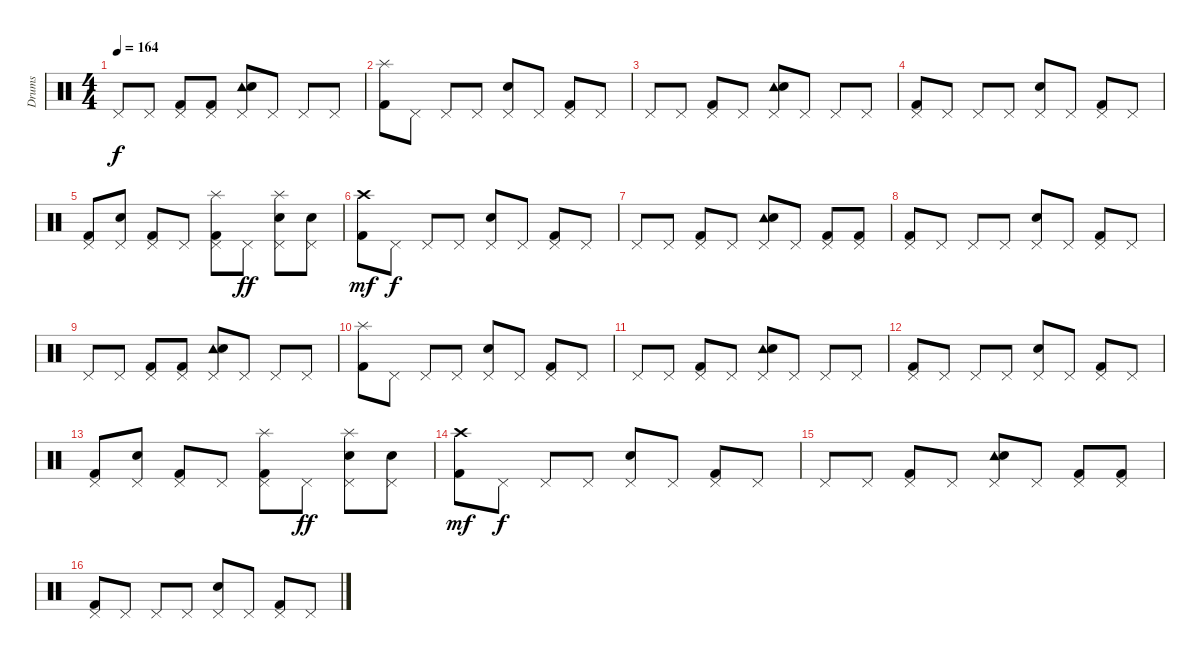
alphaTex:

\track ("Drums" "Drums") {instrument percussion}
\staff {score}
\articulation defaults
\ts (4 4)
\tempo 164
\clef neutral
\ks c "Pedal Hi-Hat (hit)".8{dy f} "Pedal Hi-Hat (hit)".8
("Pedal Hi-Hat (hit)" "Kick (hit) 2").8 ("Pedal Hi-Hat (hit)" "Kick (hit) 2").8 ("Tambourine (hit)" "Pedal Hi-Hat (hit)" "Snare (hit) 2").8 "Pedal Hi-Hat (hit)".8 "Pedal Hi-Hat (hit)".8 "Pedal Hi-Hat (hit)".8 |
("Splash (hit)" "Kick (hit) 2").8 "Pedal Hi-Hat (hit)".8 "Pedal Hi-Hat (hit)".8 "Pedal Hi-Hat (hit)".8 ("Pedal Hi-Hat (hit)" "Snare (hit) 2").8 "Pedal Hi-Hat (hit)".8 ("Pedal Hi-Hat (hit)" "Kick (hit) 2").8 "Pedal Hi-Hat (hit)".8 |
"Pedal Hi-Hat (hit)".8 "Pedal Hi-Hat (hit)".8 ("Pedal Hi-Hat (hit)" "Kick (hit) 2").8 "Pedal Hi-Hat (hit)".8 ("Tambourine (hit)" "Pedal Hi-Hat (hit)" "Snare (hit) 2").8 "Pedal Hi-Hat (hit)".8 "Pedal Hi-Hat (hit)".8 "Pedal Hi-Hat (hit)".8 |
("Pedal Hi-Hat (hit)" "Kick (hit) 2").8 "Pedal Hi-Hat (hit)".8 "Pedal Hi-Hat (hit)".8 "Pedal Hi-Hat (hit)".8 ("Pedal Hi-Hat (hit)" "Snare (hit) 2").8 "Pedal Hi-Hat (hit)".8 ("Pedal Hi-Hat (hit)" "Kick (hit) 2").8 "Pedal Hi-Hat (hit)".8 |
("Pedal Hi-Hat (hit)" "Kick (hit) 2").8 ("Pedal Hi-Hat (hit)" "Snare (hit) 2").8 ("Pedal Hi-Hat (hit)" "Kick (hit) 2").8 "Pedal Hi-Hat (hit)".8 ("Splash (hit)" "Pedal Hi-Hat (hit)" "Kick (hit) 2").8 "Pedal Hi-Hat (hit)".8{dy ff} ("Splash (hit)" "Pedal Hi-Hat (hit)" "Snare (hit) 2").8 ("Pedal Hi-Hat (hit)" "Snare (hit) 2").8 |
("Crash high (hit)" "Kick (hit) 2").8{dy mf} "Pedal Hi-Hat (hit)".8{dy f} "Pedal Hi-Hat (hit)".8 "Pedal Hi-Hat (hit)".8 ("Pedal Hi-Hat (hit)" "Snare (hit) 2").8 "Pedal Hi-Hat (hit)".8 ("Pedal Hi-Hat (hit)" "Kick (hit) 2").8 "Pedal Hi-Hat (hit)".8 |
"Pedal Hi-Hat (hit)".8 "Pedal Hi-Hat (hit)".8 ("Pedal Hi-Hat (hit)" "Kick (hit) 2").8 "Pedal Hi-Hat (hit)".8 ("Tambourine (hit)" "Pedal Hi-Hat (hit)" "Snare (hit) 2").8 "Pedal Hi-Hat (hit)".8 ("Pedal Hi-Hat (hit)" "Kick (hit) 2").8 ("Pedal Hi-Hat (hit)" "Kick (hit) 2").8 |
("Pedal Hi-Hat (hit)" "Kick (hit) 2").8 "Pedal Hi-Hat (hit)".8 "Pedal Hi-Hat (hit)".8 "Pedal Hi-Hat (hit)".8 ("Pedal Hi-Hat (hit)" "Snare (hit) 2").8 "Pedal Hi-Hat (hit)".8 ("Pedal Hi-Hat (hit)" "Kick (hit) 2").8 "Pedal Hi-Hat (hit)".8 |
"Pedal Hi-Hat (hit)".8 "Pedal Hi-Hat (hit)".8 ("Pedal Hi-Hat (hit)" "Kick (hit) 2").8 ("Pedal Hi-Hat (hit)" "Kick (hit) 2").8 ("Tambourine (hit)" "Pedal Hi-Hat (hit)" "Snare (hit) 2").8 "Pedal Hi-Hat (hit)".8 "Pedal Hi-Hat (hit)".8 "Pedal Hi-Hat (hit)".8 |
("Splash (hit)" "Kick (hit) 2").8 "Pedal Hi-Hat (hit)".8 "Pedal Hi-Hat (hit)".8 "Pedal Hi-Hat (hit)".8 ("Pedal Hi-Hat (hit)" "Snare (hit) 2").8 "Pedal Hi-Hat (hit)".8 ("Pedal Hi-Hat (hit)" "Kick (hit) 2").8 "Pedal Hi-Hat (hit)".8 |
"Pedal Hi-Hat (hit)".8 "Pedal Hi-Hat (hit)".8 ("Pedal Hi-Hat (hit)" "Kick (hit) 2").8 "Pedal Hi-Hat (hit)".8 ("Tambourine (hit)" "Pedal Hi-Hat (hit)" "Snare (hit) 2").8 "Pedal Hi-Hat (hit)".8 "Pedal Hi-Hat (hit)".8 "Pedal Hi-Hat (hit)".8 |
("Pedal Hi-Hat (hit)" "Kick (hit) 2").8 "Pedal Hi-Hat (hit)".8 "Pedal Hi-Hat (hit)".8 "Pedal Hi-Hat (hit)".8 ("Pedal Hi-Hat (hit)" "Snare (hit) 2").8 "Pedal Hi-Hat (hit)".8 ("Pedal Hi-Hat (hit)" "Kick (hit) 2").8 "Pedal Hi-Hat (hit)".8 |
("Pedal Hi-Hat (hit)" "Kick (hit) 2").8 ("Pedal Hi-Hat (hit)" "Snare (hit) 2").8 ("Pedal Hi-Hat (hit)" "Kick (hit) 2").8 "Pedal Hi-Hat (hit)".8 ("Splash (hit)" "Pedal Hi-Hat (hit)" "Kick (hit) 2").8 "Pedal Hi-Hat (hit)".8{dy ff} ("Splash (hit)" "Pedal Hi-Hat (hit)" "Snare (hit) 2").8 ("Pedal Hi-Hat (hit)" "Snare (hit) 2").8 |
("Crash high (hit)" "Kick (hit) 2").8{dy mf} "Pedal Hi-Hat (hit)".8{dy f} "Pedal Hi-Hat (hit)".8 "Pedal Hi-Hat (hit)".8 ("Pedal Hi-Hat (hit)" "Snare (hit) 2").8 "Pedal Hi-Hat (hit)".8 ("Pedal Hi-Hat (hit)" "Kick (hit) 2").8 "Pedal Hi-Hat (hit)".8 |
"Pedal Hi-Hat (hit)".8 "Pedal Hi-Hat (hit)".8 ("Pedal Hi-Hat (hit)" "Kick (hit) 2").8 "Pedal Hi-Hat (hit)".8 ("Tambourine (hit)" "Pedal Hi-Hat (hit)" "Snare (hit) 2").8 "Pedal Hi-Hat (hit)".8 ("Pedal Hi-Hat (hit)" "Kick (hit) 2").8 ("Pedal Hi-Hat (hit)" "Kick (hit) 2").8 |
("Pedal Hi-Hat (hit)" "Kick (hit) 2").8 "Pedal Hi-Hat (hit)".8 "Pedal Hi-Hat (hit)".8 "Pedal Hi-Hat (hit)".8 ("Pedal Hi-Hat (hit)" "Snare (hit) 2").8 "Pedal Hi-Hat (hit)".8 ("Pedal Hi-Hat (hit)" "Kick (hit) 2").8 "Pedal Hi-Hat (hit)".8
